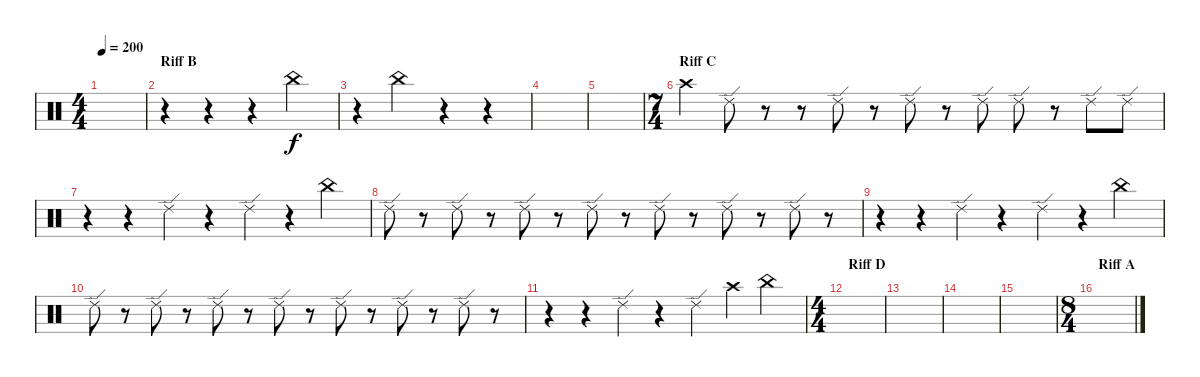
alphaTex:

\track "" {instrument percussion}
\staff {score}
\articulation defaults
\ts (4 4)
\tempo 200
\clef neutral
\ks c
|
\section ("" "Riff B")
r.4 r.4 r.4 "China (hit)".4 |
r.4 "China (hit)".4 r.4 r.4 |
|
|
\ts (7 4)
\section ("" "Riff C")
"Crash high (hit)".4 "Ride (edge) 2".8 r.8 r.8 "Ride (edge) 2".8 r.8 "Ride (edge) 2".8 r.8 "Ride (edge) 2".8 "Ride (edge) 2".8 r.8 "Ride (edge) 2".8 "Ride (edge) 2".8 |
r.4 r.4 "Ride (edge) 2".4 r.4 "Ride (edge) 2".4 r.4 "China (hit)".4 |
"Ride (edge) 2".8 r.8 "Ride (edge) 2".8 r.8 "Ride (edge) 2".8 r.8 "Ride (edge) 2".8 r.8 "Ride (edge) 2".8 r.8 "Ride (edge) 2".8 r.8 "Ride (edge) 2".8 r.8 |
r.4 r.4 "Ride (edge) 2".4 r.4 "Ride (edge) 2".4 r.4 "China (hit)".4 |
"Ride (edge) 2".8 r.8 "Ride (edge) 2".8 r.8 "Ride (edge) 2".8 r.8 "Ride (edge) 2".8 r.8 "Ride (edge) 2".8 r.8 "Ride (edge) 2".8 r.8 "Ride (edge) 2".8 r.8 |
r.4 r.4 "Ride (edge) 2".4 r.4 "Ride (edge) 2".4 "Crash high (hit)".4 "China (hit)".4 |
\ts (4 4)
\section ("" "Riff D")
|
|
|
|
\ts (8 4)
\section ("" "Riff A")
